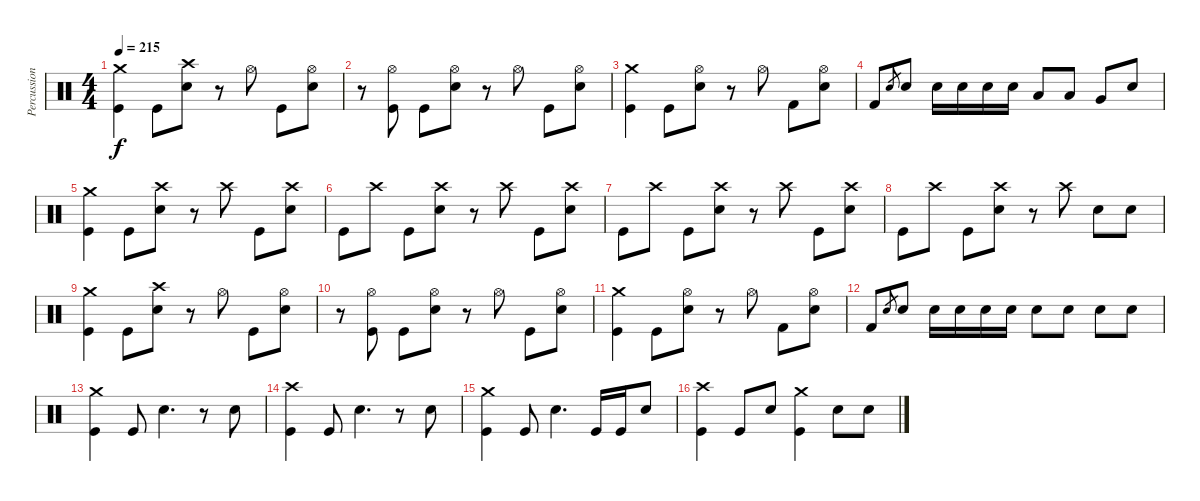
\track ("Percussion" "Percussion") {instrument percussion}
\staff {score}
\articulation defaults
\ts (4 4)
\tempo 215
\clef neutral
\ks c
("Crash medium (hit)" "Kick (hit)").4{dy f} "Kick (hit)".8 ("Crash high (hit)" "Electric Snare (hit)").8 r.8 "Hi-Hat (open)".8 "Kick (hit)".8 ("Hi-Hat (open)" "Electric Snare (hit)").8 |
r.8 ("Hi-Hat (open)" "Kick (hit)").8 "Kick (hit)".8 ("Hi-Hat (open)" "Electric Snare (hit)").8 r.8 "Hi-Hat (open)".8 "Kick (hit)".8 ("Hi-Hat (open)" "Electric Snare (hit)").8 |
("Crash medium (hit)" "Kick (hit)").4 "Kick (hit)".8 ("Hi-Hat (open)" "Electric Snare (hit)").8 r.8 "Hi-Hat (open)".8 "Kick (hit) 2".8 ("Hi-Hat (open)" "Electric Snare (hit)").8 |
"Kick (hit) 2".8 "Electric Snare (hit)".8{gr} "Electric Snare (hit)".8 "Electric Snare (hit)".16 "Electric Snare (hit)".16 "Electric Snare (hit)".16 "Electric Snare (hit)".16 "Low Tom (hit)".8 "Low Tom (hit)".8 "Very Low Tom (hit)".8 "Electric Snare (hit)".8 |
("Crash medium (hit)" "Kick (hit)").4 "Kick (hit)".8 ("Crash high (hit)" "Electric Snare (hit)").8 r.8 "Crash high (hit)".8 "Kick (hit)".8 ("Crash high (hit)" "Electric Snare (hit)").8 |
"Kick (hit)".8 "Crash high (hit)".8 "Kick (hit)".8 ("Crash high (hit)" "Electric Snare (hit)").8 r.8 "Crash high (hit)".8 "Kick (hit)".8 ("Crash high (hit)" "Electric Snare (hit)").8 |
"Kick (hit)".8 "Crash high (hit)".8 "Kick (hit)".8 ("Crash high (hit)" "Electric Snare (hit)").8 r.8 "Crash high (hit)".8 "Kick (hit)".8 ("Crash high (hit)" "Electric Snare (hit)").8 |
"Kick (hit)".8 "Crash high (hit)".8 "Kick (hit)".8 ("Crash high (hit)" "Electric Snare (hit)").8 r.8 "Crash high (hit)".8 "Electric Snare (hit)".8 "Electric Snare (hit)".8 |
("Crash medium (hit)" "Kick (hit)").4 "Kick (hit)".8 ("Crash high (hit)" "Electric Snare (hit)").8 r.8 "Hi-Hat (open)".8 "Kick (hit)".8 ("Hi-Hat (open)" "Electric Snare (hit)").8 |
r.8 ("Hi-Hat (open)" "Kick (hit)").8 "Kick (hit)".8 ("Hi-Hat (open)" "Electric Snare (hit)").8 r.8 "Hi-Hat (open)".8 "Kick (hit)".8 ("Hi-Hat (open)" "Electric Snare (hit)").8 |
("Crash medium (hit)" "Kick (hit)").4 "Kick (hit)".8 ("Hi-Hat (open)" "Electric Snare (hit)").8 r.8 "Hi-Hat (open)".8 "Kick (hit) 2".8 ("Hi-Hat (open)" "Electric Snare (hit)").8 |
"Kick (hit) 2".8 "Electric Snare (hit)".8{gr} "Electric Snare (hit)".8 "Electric Snare (hit)".16 "Electric Snare (hit)".16 "Electric Snare (hit)".16 "Electric Snare (hit)".16 "Electric Snare (hit)".8 "Electric Snare (hit)".8 "Electric Snare (hit)".8 "Electric Snare (hit)".8 |
("Crash medium (hit)" "Kick (hit)").4 "Kick (hit)".8 "Electric Snare (hit)".4{d} r.8 "Electric Snare (hit)".8 |
("Crash high (hit)" "Kick (hit)").4 "Kick (hit)".8 "Electric Snare (hit)".4{d} r.8 "Electric Snare (hit)".8 |
("Crash medium (hit)" "Kick (hit)").4 "Kick (hit)".8 "Electric Snare (hit)".4{d} "Kick (hit)".16 "Kick (hit)".16 "Electric Snare (hit)".8 |
("Crash high (hit)" "Kick (hit)").4 "Kick (hit)".8 "Electric Snare (hit)".8 ("Crash medium (hit)" "Kick (hit)").4 "Electric Snare (hit)".8 "Electric Snare (hit)".8
